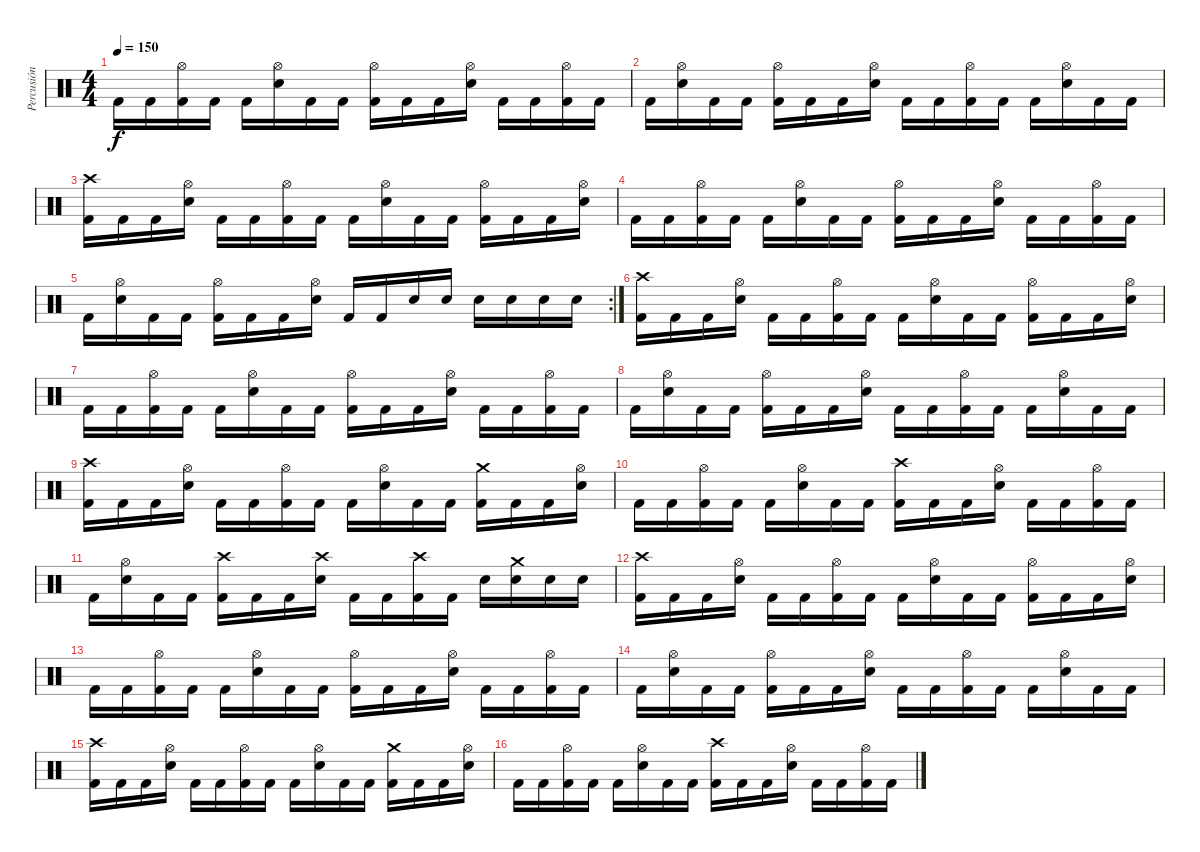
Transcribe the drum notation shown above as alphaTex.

\track ("Percusión" "Percusión") {instrument percussion}
\staff {score}
\articulation defaults
\ts (4 4)
\tempo 150
\clef neutral
\ks c "Kick (hit) 2".16{dy f} "Kick (hit) 2".16
("Hi-Hat (open)" "Kick (hit) 2").16 "Kick (hit) 2".16 "Kick (hit) 2".16 ("Hi-Hat (open)" "Electric Snare (hit)").16 "Kick (hit) 2".16 "Kick (hit) 2".16 ("Hi-Hat (open)" "Kick (hit) 2").16 "Kick (hit) 2".16 "Kick (hit) 2".16 ("Hi-Hat (open)" "Electric Snare (hit)").16 "Kick (hit) 2".16 "Kick (hit) 2".16 ("Hi-Hat (open)" "Kick (hit) 2").16 "Kick (hit) 2".16 |
"Kick (hit) 2".16 ("Hi-Hat (open)" "Electric Snare (hit)").16 "Kick (hit) 2".16 "Kick (hit) 2".16 ("Hi-Hat (open)" "Kick (hit) 2").16 "Kick (hit) 2".16 "Kick (hit) 2".16 ("Hi-Hat (open)" "Electric Snare (hit)").16 "Kick (hit) 2".16 "Kick (hit) 2".16 ("Hi-Hat (open)" "Kick (hit) 2").16 "Kick (hit) 2".16 "Kick (hit) 2".16 ("Hi-Hat (open)" "Electric Snare (hit)").16 "Kick (hit) 2".16 "Kick (hit) 2".16 |
("Crash high (hit)" "Kick (hit) 2").16 "Kick (hit) 2".16 "Kick (hit) 2".16 ("Hi-Hat (open)" "Electric Snare (hit)").16 "Kick (hit) 2".16 "Kick (hit) 2".16 ("Hi-Hat (open)" "Kick (hit) 2").16 "Kick (hit) 2".16 "Kick (hit) 2".16 ("Hi-Hat (open)" "Electric Snare (hit)").16 "Kick (hit) 2".16 "Kick (hit) 2".16 ("Hi-Hat (open)" "Kick (hit) 2").16 "Kick (hit) 2".16 "Kick (hit) 2".16 ("Hi-Hat (open)" "Electric Snare (hit)").16 |
"Kick (hit) 2".16 "Kick (hit) 2".16 ("Hi-Hat (open)" "Kick (hit) 2").16 "Kick (hit) 2".16 "Kick (hit) 2".16 ("Hi-Hat (open)" "Electric Snare (hit)").16 "Kick (hit) 2".16 "Kick (hit) 2".16 ("Hi-Hat (open)" "Kick (hit) 2").16 "Kick (hit) 2".16 "Kick (hit) 2".16 ("Hi-Hat (open)" "Electric Snare (hit)").16 "Kick (hit) 2".16 "Kick (hit) 2".16 ("Hi-Hat (open)" "Kick (hit) 2").16 "Kick (hit) 2".16 |
\rc 2 "Kick (hit) 2".16
("Hi-Hat (open)" "Electric Snare (hit)").16 "Kick (hit) 2".16 "Kick (hit) 2".16 ("Hi-Hat (open)" "Kick (hit) 2").16 "Kick (hit) 2".16 "Kick (hit) 2".16 ("Hi-Hat (open)" "Electric Snare (hit)").16 "Kick (hit) 2".16 "Kick (hit) 2".16 "Electric Snare (hit)".16 "Electric Snare (hit)".16 "Electric Snare (hit)".16 "Electric Snare (hit)".16 "Electric Snare (hit)".16 "Electric Snare (hit)".16 |
("Crash high (hit)" "Kick (hit) 2").16 "Kick (hit) 2".16 "Kick (hit) 2".16 ("Hi-Hat (open)" "Electric Snare (hit)").16 "Kick (hit) 2".16 "Kick (hit) 2".16 ("Hi-Hat (open)" "Kick (hit) 2").16 "Kick (hit) 2".16 "Kick (hit) 2".16 ("Hi-Hat (open)" "Electric Snare (hit)").16 "Kick (hit) 2".16 "Kick (hit) 2".16 ("Hi-Hat (open)" "Kick (hit) 2").16 "Kick (hit) 2".16 "Kick (hit) 2".16 ("Hi-Hat (open)" "Electric Snare (hit)").16 |
"Kick (hit) 2".16 "Kick (hit) 2".16 ("Hi-Hat (open)" "Kick (hit) 2").16 "Kick (hit) 2".16 "Kick (hit) 2".16 ("Hi-Hat (open)" "Electric Snare (hit)").16 "Kick (hit) 2".16 "Kick (hit) 2".16 ("Hi-Hat (open)" "Kick (hit) 2").16 "Kick (hit) 2".16 "Kick (hit) 2".16 ("Hi-Hat (open)" "Electric Snare (hit)").16 "Kick (hit) 2".16 "Kick (hit) 2".16 ("Hi-Hat (open)" "Kick (hit) 2").16 "Kick (hit) 2".16 |
"Kick (hit) 2".16 ("Hi-Hat (open)" "Electric Snare (hit)").16 "Kick (hit) 2".16 "Kick (hit) 2".16 ("Hi-Hat (open)" "Kick (hit) 2").16 "Kick (hit) 2".16 "Kick (hit) 2".16 ("Hi-Hat (open)" "Electric Snare (hit)").16 "Kick (hit) 2".16 "Kick (hit) 2".16 ("Hi-Hat (open)" "Kick (hit) 2").16 "Kick (hit) 2".16 "Kick (hit) 2".16 ("Hi-Hat (open)" "Electric Snare (hit)").16 "Kick (hit) 2".16 "Kick (hit) 2".16 |
("Crash high (hit)" "Kick (hit) 2").16 "Kick (hit) 2".16 "Kick (hit) 2".16 ("Hi-Hat (open)" "Electric Snare (hit)").16 "Kick (hit) 2".16 "Kick (hit) 2".16 ("Hi-Hat (open)" "Kick (hit) 2").16 "Kick (hit) 2".16 "Kick (hit) 2".16 ("Hi-Hat (open)" "Electric Snare (hit)").16 "Kick (hit) 2".16 "Kick (hit) 2".16 ("Crash medium (hit)" "Kick (hit) 2").16 "Kick (hit) 2".16 "Kick (hit) 2".16 ("Hi-Hat (open)" "Electric Snare (hit)").16 |
"Kick (hit) 2".16 "Kick (hit) 2".16 ("Hi-Hat (open)" "Kick (hit) 2").16 "Kick (hit) 2".16 "Kick (hit) 2".16 ("Hi-Hat (open)" "Electric Snare (hit)").16 "Kick (hit) 2".16 "Kick (hit) 2".16 ("Crash high (hit)" "Kick (hit) 2").16 "Kick (hit) 2".16 "Kick (hit) 2".16 ("Hi-Hat (open)" "Electric Snare (hit)").16 "Kick (hit) 2".16 "Kick (hit) 2".16 ("Hi-Hat (open)" "Kick (hit) 2").16 "Kick (hit) 2".16 |
"Kick (hit) 2".16 ("Hi-Hat (open)" "Electric Snare (hit)").16 "Kick (hit) 2".16 "Kick (hit) 2".16 ("Crash high (hit)" "Kick (hit) 2").16 "Kick (hit) 2".16 "Kick (hit) 2".16 ("Crash high (hit)" "Electric Snare (hit)").16 "Kick (hit) 2".16 "Kick (hit) 2".16 ("Crash high (hit)" "Kick (hit) 2").16 "Kick (hit) 2".16 "Electric Snare (hit)".16 ("Crash medium (hit)" "Electric Snare (hit)").16 "Electric Snare (hit)".16 "Electric Snare (hit)".16 |
("Crash high (hit)" "Kick (hit) 2").16 "Kick (hit) 2".16 "Kick (hit) 2".16 ("Hi-Hat (open)" "Electric Snare (hit)").16 "Kick (hit) 2".16 "Kick (hit) 2".16 ("Hi-Hat (open)" "Kick (hit) 2").16 "Kick (hit) 2".16 "Kick (hit) 2".16 ("Hi-Hat (open)" "Electric Snare (hit)").16 "Kick (hit) 2".16 "Kick (hit) 2".16 ("Hi-Hat (open)" "Kick (hit) 2").16 "Kick (hit) 2".16 "Kick (hit) 2".16 ("Hi-Hat (open)" "Electric Snare (hit)").16 |
"Kick (hit) 2".16 "Kick (hit) 2".16 ("Hi-Hat (open)" "Kick (hit) 2").16 "Kick (hit) 2".16 "Kick (hit) 2".16 ("Hi-Hat (open)" "Electric Snare (hit)").16 "Kick (hit) 2".16 "Kick (hit) 2".16 ("Hi-Hat (open)" "Kick (hit) 2").16 "Kick (hit) 2".16 "Kick (hit) 2".16 ("Hi-Hat (open)" "Electric Snare (hit)").16 "Kick (hit) 2".16 "Kick (hit) 2".16 ("Hi-Hat (open)" "Kick (hit) 2").16 "Kick (hit) 2".16 |
"Kick (hit) 2".16 ("Hi-Hat (open)" "Electric Snare (hit)").16 "Kick (hit) 2".16 "Kick (hit) 2".16 ("Hi-Hat (open)" "Kick (hit) 2").16 "Kick (hit) 2".16 "Kick (hit) 2".16 ("Hi-Hat (open)" "Electric Snare (hit)").16 "Kick (hit) 2".16 "Kick (hit) 2".16 ("Hi-Hat (open)" "Kick (hit) 2").16 "Kick (hit) 2".16 "Kick (hit) 2".16 ("Hi-Hat (open)" "Electric Snare (hit)").16 "Kick (hit) 2".16 "Kick (hit) 2".16 |
("Crash high (hit)" "Kick (hit) 2").16 "Kick (hit) 2".16 "Kick (hit) 2".16 ("Hi-Hat (open)" "Electric Snare (hit)").16 "Kick (hit) 2".16 "Kick (hit) 2".16 ("Hi-Hat (open)" "Kick (hit) 2").16 "Kick (hit) 2".16 "Kick (hit) 2".16 ("Hi-Hat (open)" "Electric Snare (hit)").16 "Kick (hit) 2".16 "Kick (hit) 2".16 ("Crash medium (hit)" "Kick (hit) 2").16 "Kick (hit) 2".16 "Kick (hit) 2".16 ("Hi-Hat (open)" "Electric Snare (hit)").16 |
"Kick (hit) 2".16 "Kick (hit) 2".16 ("Hi-Hat (open)" "Kick (hit) 2").16 "Kick (hit) 2".16 "Kick (hit) 2".16 ("Hi-Hat (open)" "Electric Snare (hit)").16 "Kick (hit) 2".16 "Kick (hit) 2".16 ("Crash high (hit)" "Kick (hit) 2").16 "Kick (hit) 2".16 "Kick (hit) 2".16 ("Hi-Hat (open)" "Electric Snare (hit)").16 "Kick (hit) 2".16 "Kick (hit) 2".16 ("Hi-Hat (open)" "Kick (hit) 2").16 "Kick (hit) 2".16
